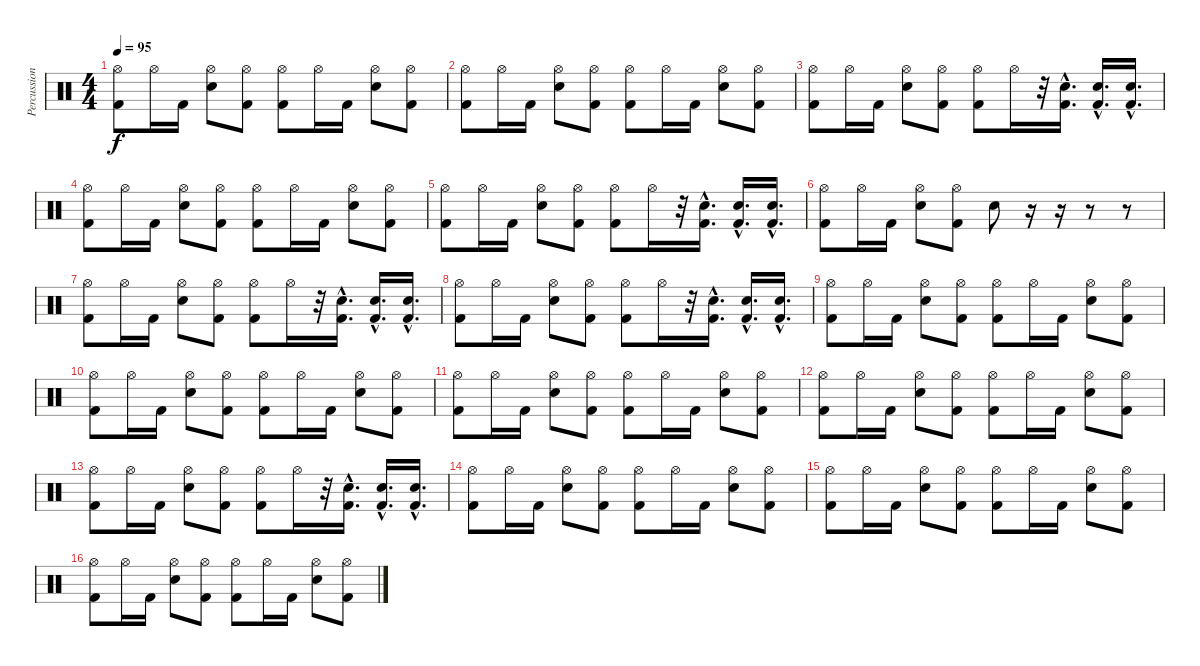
\track ("Percussion" "Percussion") {instrument percussion}
\staff {score}
\articulation defaults
\ts (4 4)
\tempo 95
\clef neutral
\ks c
("Hi-Hat (open)" "Kick (hit) 2").8{dy f} "Hi-Hat (open)".16 "Kick (hit) 2".16 ("Hi-Hat (open)" "Electric Snare (hit)").8 ("Hi-Hat (open)" "Kick (hit) 2").8 ("Hi-Hat (open)" "Kick (hit) 2").8 "Hi-Hat (open)".16 "Kick (hit) 2".16 ("Hi-Hat (open)" "Electric Snare (hit)").8 ("Hi-Hat (open)" "Kick (hit) 2").8 |
("Hi-Hat (open)" "Kick (hit) 2").8 "Hi-Hat (open)".16 "Kick (hit) 2".16 ("Hi-Hat (open)" "Electric Snare (hit)").8 ("Hi-Hat (open)" "Kick (hit) 2").8 ("Hi-Hat (open)" "Kick (hit) 2").8 "Hi-Hat (open)".16 "Kick (hit) 2".16 ("Hi-Hat (open)" "Electric Snare (hit)").8 ("Hi-Hat (open)" "Kick (hit) 2").8 |
("Hi-Hat (open)" "Kick (hit) 2").8 "Hi-Hat (open)".16 "Kick (hit) 2".16 ("Hi-Hat (open)" "Electric Snare (hit)").8 ("Hi-Hat (open)" "Kick (hit) 2").8 ("Hi-Hat (open)" "Kick (hit) 2").8 "Hi-Hat (open)".16 r.32 ("Electric Snare (hit)"{hac} "Kick (hit) 2"{hac}).16{d} ("Electric Snare (hit)"{hac} "Kick (hit) 2"{hac}).16{d} ("Electric Snare (hit)"{hac} "Kick (hit) 2"{hac}).16{d} |
("Hi-Hat (open)" "Kick (hit) 2").8 "Hi-Hat (open)".16 "Kick (hit) 2".16 ("Hi-Hat (open)" "Electric Snare (hit)").8 ("Hi-Hat (open)" "Kick (hit) 2").8 ("Hi-Hat (open)" "Kick (hit) 2").8 "Hi-Hat (open)".16 "Kick (hit) 2".16 ("Hi-Hat (open)" "Electric Snare (hit)").8 ("Hi-Hat (open)" "Kick (hit) 2").8 |
("Hi-Hat (open)" "Kick (hit) 2").8 "Hi-Hat (open)".16 "Kick (hit) 2".16 ("Hi-Hat (open)" "Electric Snare (hit)").8 ("Hi-Hat (open)" "Kick (hit) 2").8 ("Hi-Hat (open)" "Kick (hit) 2").8 "Hi-Hat (open)".16 r.32 ("Electric Snare (hit)"{hac} "Kick (hit) 2"{hac}).16{d} ("Electric Snare (hit)"{hac} "Kick (hit) 2"{hac}).16{d} ("Electric Snare (hit)"{hac} "Kick (hit) 2"{hac}).16{d} |
("Hi-Hat (open)" "Kick (hit) 2").8 "Hi-Hat (open)".16 "Kick (hit) 2".16 ("Hi-Hat (open)" "Electric Snare (hit)").8 ("Hi-Hat (open)" "Kick (hit) 2").8 "Electric Snare (hit)".8 r.16 r.16 r.8 r.8 |
("Hi-Hat (open)" "Kick (hit) 2").8 "Hi-Hat (open)".16 "Kick (hit) 2".16 ("Hi-Hat (open)" "Electric Snare (hit)").8 ("Hi-Hat (open)" "Kick (hit) 2").8 ("Hi-Hat (open)" "Kick (hit) 2").8 "Hi-Hat (open)".16 r.32 ("Electric Snare (hit)"{hac} "Kick (hit) 2"{hac}).16{d} ("Electric Snare (hit)"{hac} "Kick (hit) 2"{hac}).16{d} ("Electric Snare (hit)"{hac} "Kick (hit) 2"{hac}).16{d} |
("Hi-Hat (open)" "Kick (hit) 2").8 "Hi-Hat (open)".16 "Kick (hit) 2".16 ("Hi-Hat (open)" "Electric Snare (hit)").8 ("Hi-Hat (open)" "Kick (hit) 2").8 ("Hi-Hat (open)" "Kick (hit) 2").8 "Hi-Hat (open)".16 r.32 ("Electric Snare (hit)"{hac} "Kick (hit) 2"{hac}).16{d} ("Electric Snare (hit)"{hac} "Kick (hit) 2"{hac}).16{d} ("Electric Snare (hit)"{hac} "Kick (hit) 2"{hac}).16{d} |
("Hi-Hat (open)" "Kick (hit) 2").8 "Hi-Hat (open)".16 "Kick (hit) 2".16 ("Hi-Hat (open)" "Electric Snare (hit)").8 ("Hi-Hat (open)" "Kick (hit) 2").8 ("Hi-Hat (open)" "Kick (hit) 2").8 "Hi-Hat (open)".16 "Kick (hit) 2".16 ("Hi-Hat (open)" "Electric Snare (hit)").8 ("Hi-Hat (open)" "Kick (hit) 2").8 |
("Hi-Hat (open)" "Kick (hit) 2").8 "Hi-Hat (open)".16 "Kick (hit) 2".16 ("Hi-Hat (open)" "Electric Snare (hit)").8 ("Hi-Hat (open)" "Kick (hit) 2").8 ("Hi-Hat (open)" "Kick (hit) 2").8 "Hi-Hat (open)".16 "Kick (hit) 2".16 ("Hi-Hat (open)" "Electric Snare (hit)").8 ("Hi-Hat (open)" "Kick (hit) 2").8 |
("Hi-Hat (open)" "Kick (hit) 2").8 "Hi-Hat (open)".16 "Kick (hit) 2".16 ("Hi-Hat (open)" "Electric Snare (hit)").8 ("Hi-Hat (open)" "Kick (hit) 2").8 ("Hi-Hat (open)" "Kick (hit) 2").8 "Hi-Hat (open)".16 "Kick (hit) 2".16 ("Hi-Hat (open)" "Electric Snare (hit)").8 ("Hi-Hat (open)" "Kick (hit) 2").8 |
("Hi-Hat (open)" "Kick (hit) 2").8 "Hi-Hat (open)".16 "Kick (hit) 2".16 ("Hi-Hat (open)" "Electric Snare (hit)").8 ("Hi-Hat (open)" "Kick (hit) 2").8 ("Hi-Hat (open)" "Kick (hit) 2").8 "Hi-Hat (open)".16 "Kick (hit) 2".16 ("Hi-Hat (open)" "Electric Snare (hit)").8 ("Hi-Hat (open)" "Kick (hit) 2").8 |
("Hi-Hat (open)" "Kick (hit) 2").8 "Hi-Hat (open)".16 "Kick (hit) 2".16 ("Hi-Hat (open)" "Electric Snare (hit)").8 ("Hi-Hat (open)" "Kick (hit) 2").8 ("Hi-Hat (open)" "Kick (hit) 2").8 "Hi-Hat (open)".16 r.32 ("Electric Snare (hit)"{hac} "Kick (hit) 2"{hac}).16{d} ("Electric Snare (hit)"{hac} "Kick (hit) 2"{hac}).16{d} ("Electric Snare (hit)"{hac} "Kick (hit) 2"{hac}).16{d} |
("Hi-Hat (open)" "Kick (hit) 2").8 "Hi-Hat (open)".16 "Kick (hit) 2".16 ("Hi-Hat (open)" "Electric Snare (hit)").8 ("Hi-Hat (open)" "Kick (hit) 2").8 ("Hi-Hat (open)" "Kick (hit) 2").8 "Hi-Hat (open)".16 "Kick (hit) 2".16 ("Hi-Hat (open)" "Electric Snare (hit)").8 ("Hi-Hat (open)" "Kick (hit) 2").8 |
("Hi-Hat (open)" "Kick (hit) 2").8 "Hi-Hat (open)".16 "Kick (hit) 2".16 ("Hi-Hat (open)" "Electric Snare (hit)").8 ("Hi-Hat (open)" "Kick (hit) 2").8 ("Hi-Hat (open)" "Kick (hit) 2").8 "Hi-Hat (open)".16 "Kick (hit) 2".16 ("Hi-Hat (open)" "Electric Snare (hit)").8 ("Hi-Hat (open)" "Kick (hit) 2").8 |
("Hi-Hat (open)" "Kick (hit) 2").8 "Hi-Hat (open)".16 "Kick (hit) 2".16 ("Hi-Hat (open)" "Electric Snare (hit)").8 ("Hi-Hat (open)" "Kick (hit) 2").8 ("Hi-Hat (open)" "Kick (hit) 2").8 "Hi-Hat (open)".16 "Kick (hit) 2".16 ("Hi-Hat (open)" "Electric Snare (hit)").8 ("Hi-Hat (open)" "Kick (hit) 2").8
